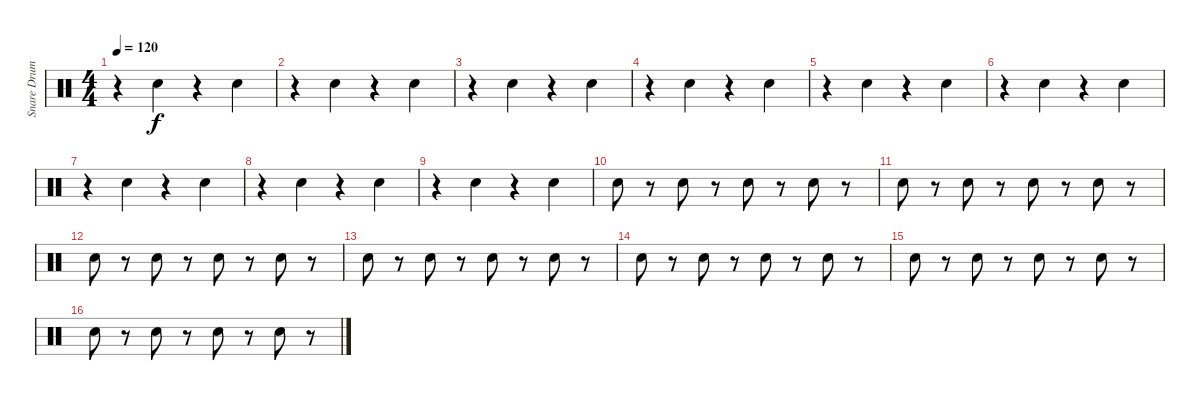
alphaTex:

\track ("Snare Drum" "Snare Drum") {instrument percussion}
\staff {score}
\articulation defaults
\ts (4 4)
\tempo 120
\clef neutral
\ks c
r.4{dy f} "Snare (hit) 2".4 r.4 "Snare (hit) 2".4 |
r.4 "Snare (hit) 2".4 r.4 "Snare (hit) 2".4 |
r.4 "Snare (hit) 2".4 r.4 "Snare (hit) 2".4 |
r.4 "Snare (hit) 2".4 r.4 "Snare (hit) 2".4 |
r.4 "Snare (hit) 2".4 r.4 "Snare (hit) 2".4 |
r.4 "Snare (hit) 2".4 r.4 "Snare (hit) 2".4 |
r.4 "Snare (hit) 2".4 r.4 "Snare (hit) 2".4 |
r.4 "Snare (hit) 2".4 r.4 "Snare (hit) 2".4 |
r.4 "Snare (hit) 2".4 r.4 "Snare (hit) 2".4 |
"Electric Snare (hit)".8 r.8 "Electric Snare (hit)".8 r.8 "Electric Snare (hit)".8 r.8 "Electric Snare (hit)".8 r.8 |
"Electric Snare (hit)".8 r.8 "Electric Snare (hit)".8 r.8 "Electric Snare (hit)".8 r.8 "Electric Snare (hit)".8 r.8 |
"Electric Snare (hit)".8 r.8 "Electric Snare (hit)".8 r.8 "Electric Snare (hit)".8 r.8 "Electric Snare (hit)".8 r.8 |
"Electric Snare (hit)".8 r.8 "Electric Snare (hit)".8 r.8 "Electric Snare (hit)".8 r.8 "Electric Snare (hit)".8 r.8 |
"Electric Snare (hit)".8 r.8 "Electric Snare (hit)".8 r.8 "Electric Snare (hit)".8 r.8 "Electric Snare (hit)".8 r.8 |
"Electric Snare (hit)".8 r.8 "Electric Snare (hit)".8 r.8 "Electric Snare (hit)".8 r.8 "Electric Snare (hit)".8 r.8 |
"Electric Snare (hit)".8 r.8 "Electric Snare (hit)".8 r.8 "Electric Snare (hit)".8 r.8 "Electric Snare (hit)".8 r.8
